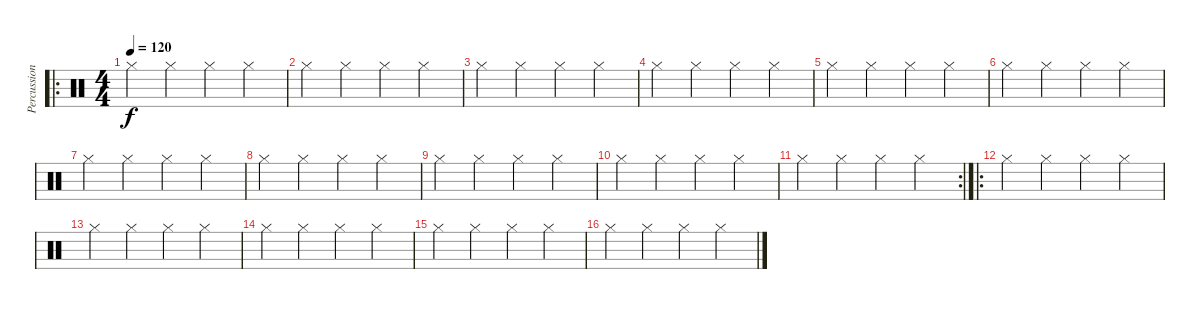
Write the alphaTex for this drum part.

\track ("Percussioni" "Percussion") {instrument percussion}
\staff {score}
\articulation defaults
\ro
\ts (4 4)
\tempo 120
\clef neutral
\ks c "Hi-Hat (closed)".4{dy f} "Hi-Hat (closed)".4 "Hi-Hat (closed)".4 "Hi-Hat (closed)".4
|
"Hi-Hat (closed)".4 "Hi-Hat (closed)".4 "Hi-Hat (closed)".4 "Hi-Hat (closed)".4 |
"Hi-Hat (closed)".4 "Hi-Hat (closed)".4 "Hi-Hat (closed)".4 "Hi-Hat (closed)".4 |
"Hi-Hat (closed)".4 "Hi-Hat (closed)".4 "Hi-Hat (closed)".4 "Hi-Hat (closed)".4 |
"Hi-Hat (closed)".4 "Hi-Hat (closed)".4 "Hi-Hat (closed)".4 "Hi-Hat (closed)".4 |
"Hi-Hat (closed)".4 "Hi-Hat (closed)".4 "Hi-Hat (closed)".4 "Hi-Hat (closed)".4 |
"Hi-Hat (closed)".4 "Hi-Hat (closed)".4 "Hi-Hat (closed)".4 "Hi-Hat (closed)".4 |
"Hi-Hat (closed)".4 "Hi-Hat (closed)".4 "Hi-Hat (closed)".4 "Hi-Hat (closed)".4 |
"Hi-Hat (closed)".4 "Hi-Hat (closed)".4 "Hi-Hat (closed)".4 "Hi-Hat (closed)".4 |
"Hi-Hat (closed)".4 "Hi-Hat (closed)".4 "Hi-Hat (closed)".4 "Hi-Hat (closed)".4 |
\rc 2 "Hi-Hat (closed)".4 "Hi-Hat (closed)".4 "Hi-Hat (closed)".4 "Hi-Hat (closed)".4
|
\ro "Hi-Hat (closed)".4 "Hi-Hat (closed)".4 "Hi-Hat (closed)".4 "Hi-Hat (closed)".4
|
"Hi-Hat (closed)".4 "Hi-Hat (closed)".4 "Hi-Hat (closed)".4 "Hi-Hat (closed)".4 |
"Hi-Hat (closed)".4 "Hi-Hat (closed)".4 "Hi-Hat (closed)".4 "Hi-Hat (closed)".4 |
"Hi-Hat (closed)".4 "Hi-Hat (closed)".4 "Hi-Hat (closed)".4 "Hi-Hat (closed)".4 |
"Hi-Hat (closed)".4 "Hi-Hat (closed)".4 "Hi-Hat (closed)".4 "Hi-Hat (closed)".4
